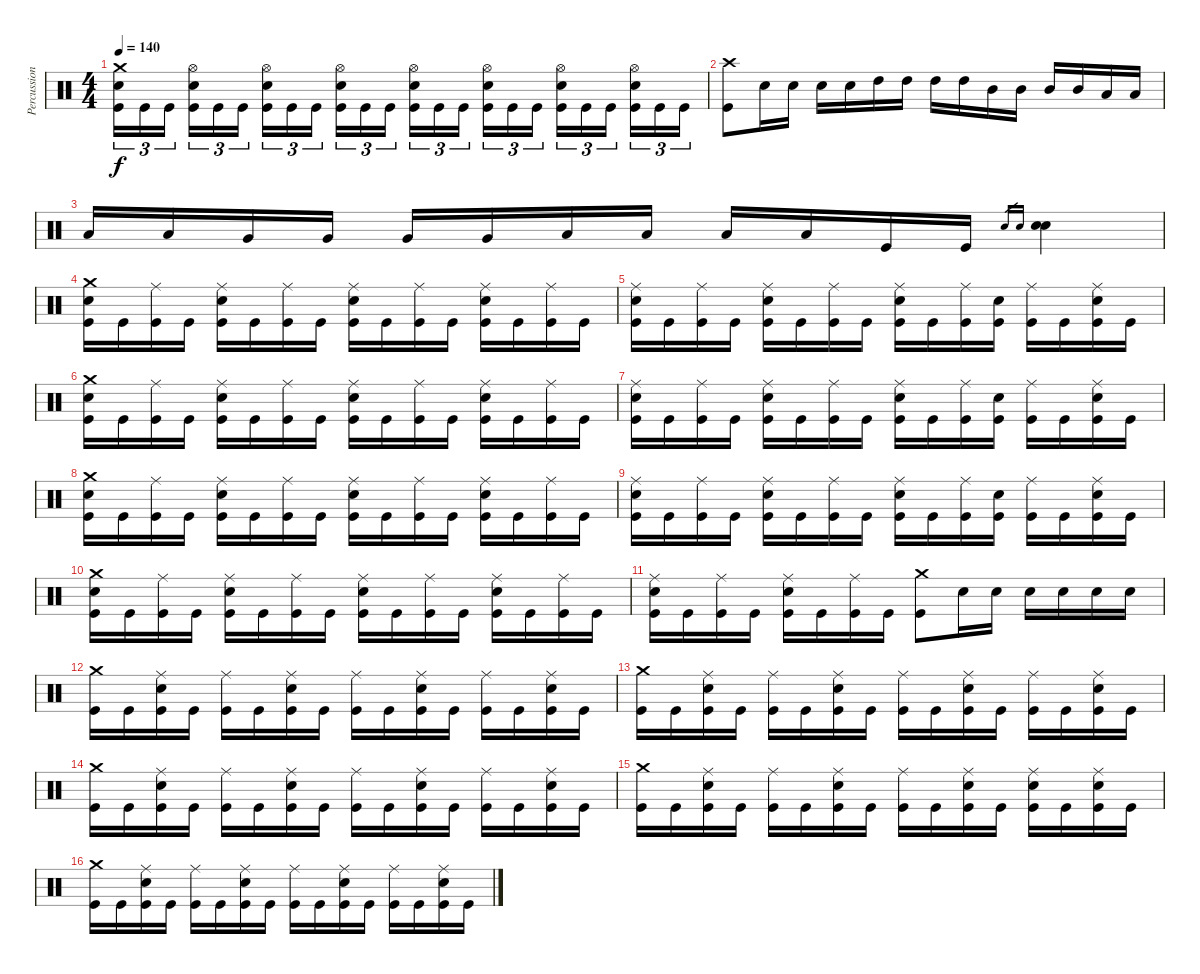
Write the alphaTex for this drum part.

\track ("Percussion" "Percussion") {instrument percussion}
\staff {score}
\articulation defaults
\ts (4 4)
\tempo 140
\clef neutral
\ks c
("Crash medium (hit)" "Snare (hit) 2" "Kick (hit)").16{tu (3 2) dy f} "Kick (hit)".16{tu (3 2)} "Kick (hit)".16{tu (3 2)} ("Hi-Hat (open)" "Snare (hit) 2" "Kick (hit)").16{tu (3 2)} "Kick (hit)".16{tu (3 2)} "Kick (hit)".16{tu (3 2)} ("Hi-Hat (open)" "Snare (hit) 2" "Kick (hit)").16{tu (3 2)} "Kick (hit)".16{tu (3 2)} "Kick (hit)".16{tu (3 2)} ("Hi-Hat (open)" "Snare (hit) 2" "Kick (hit)").16{tu (3 2)} "Kick (hit)".16{tu (3 2)} "Kick (hit)".16{tu (3 2)} ("Hi-Hat (open)" "Snare (hit) 2" "Kick (hit)").16{tu (3 2)} "Kick (hit)".16{tu (3 2)} "Kick (hit)".16{tu (3 2)} ("Hi-Hat (open)" "Snare (hit) 2" "Kick (hit)").16{tu (3 2)} "Kick (hit)".16{tu (3 2)} "Kick (hit)".16{tu (3 2)} ("Hi-Hat (open)" "Snare (hit) 2" "Kick (hit)").16{tu (3 2)} "Kick (hit)".16{tu (3 2)} "Kick (hit)".16{tu (3 2)} ("Hi-Hat (open)" "Snare (hit) 2" "Kick (hit)").16{tu (3 2)} "Kick (hit)".16{tu (3 2)} "Kick (hit)".16{tu (3 2)} |
("Crash high (hit)" "Kick (hit)").8 "Snare (hit) 2".16 "Snare (hit) 2".16 "Snare (hit) 2".16 "Snare (hit) 2".16 "High Tom (hit)".16 "High Tom (hit)".16 "High Tom (hit)".16 "High Tom (hit)".16 "Mid Tom (hit)".16 "Mid Tom (hit)".16 "Mid Tom (hit)".16 "Mid Tom (hit)".16 "Low Tom (hit)".16 "Low Tom (hit)".16 |
"Low Tom (hit)".16 "Low Tom (hit)".16 "Very Low Tom (hit)".16 "Very Low Tom (hit)".16 "Very Low Tom (hit)".16 "Very Low Tom (hit)".16 "Low Floor Tom (hit)".16 "Low Floor Tom (hit)".16 "Low Floor Tom (hit)".16 "Low Floor Tom (hit)".16 "Kick (hit)".16 "Kick (hit)".16 "Snare (hit) 2".16{gr} "Snare (hit) 2".16{gr} ("Snare (hit) 2" "Snare (hit) 2").4 |
("Crash medium (hit)" "Snare (hit) 2" "Kick (hit)").16 "Kick (hit)".16 ("Ride (middle)" "Kick (hit)").16 "Kick (hit)".16 ("Ride (middle)" "Snare (hit) 2" "Kick (hit)").16 "Kick (hit)".16 ("Ride (middle)" "Kick (hit)").16 "Kick (hit)".16 ("Ride (middle)" "Snare (hit) 2" "Kick (hit)").16 "Kick (hit)".16 ("Ride (middle)" "Kick (hit)").16 "Kick (hit)".16 ("Ride (middle)" "Snare (hit) 2" "Kick (hit)").16 "Kick (hit)".16 ("Ride (middle)" "Kick (hit)").16 "Kick (hit)".16 |
("Ride (middle)" "Snare (hit) 2" "Kick (hit)").16 "Kick (hit)".16 ("Ride (middle)" "Kick (hit)").16 "Kick (hit)".16 ("Ride (middle)" "Snare (hit) 2" "Kick (hit)").16 "Kick (hit)".16 ("Ride (middle)" "Kick (hit)").16 "Kick (hit)".16 ("Ride (middle)" "Snare (hit) 2" "Kick (hit)").16 "Kick (hit)".16 ("Ride (middle)" "Kick (hit)").16 ("Snare (hit) 2" "Kick (hit)").16 ("Ride (middle)" "Kick (hit)").16 "Kick (hit)".16 ("Ride (middle)" "Snare (hit) 2" "Kick (hit)").16 "Kick (hit)".16 |
("Crash medium (hit)" "Snare (hit) 2" "Kick (hit)").16 "Kick (hit)".16 ("Ride (middle)" "Kick (hit)").16 "Kick (hit)".16 ("Ride (middle)" "Snare (hit) 2" "Kick (hit)").16 "Kick (hit)".16 ("Ride (middle)" "Kick (hit)").16 "Kick (hit)".16 ("Ride (middle)" "Snare (hit) 2" "Kick (hit)").16 "Kick (hit)".16 ("Ride (middle)" "Kick (hit)").16 "Kick (hit)".16 ("Ride (middle)" "Snare (hit) 2" "Kick (hit)").16 "Kick (hit)".16 ("Ride (middle)" "Kick (hit)").16 "Kick (hit)".16 |
("Ride (middle)" "Snare (hit) 2" "Kick (hit)").16 "Kick (hit)".16 ("Ride (middle)" "Kick (hit)").16 "Kick (hit)".16 ("Ride (middle)" "Snare (hit) 2" "Kick (hit)").16 "Kick (hit)".16 ("Ride (middle)" "Kick (hit)").16 "Kick (hit)".16 ("Ride (middle)" "Snare (hit) 2" "Kick (hit)").16 "Kick (hit)".16 ("Ride (middle)" "Kick (hit)").16 ("Snare (hit) 2" "Kick (hit)").16 ("Ride (middle)" "Kick (hit)").16 "Kick (hit)".16 ("Ride (middle)" "Snare (hit) 2" "Kick (hit)").16 "Kick (hit)".16 |
("Crash medium (hit)" "Snare (hit) 2" "Kick (hit)").16 "Kick (hit)".16 ("Ride (middle)" "Kick (hit)").16 "Kick (hit)".16 ("Ride (middle)" "Snare (hit) 2" "Kick (hit)").16 "Kick (hit)".16 ("Ride (middle)" "Kick (hit)").16 "Kick (hit)".16 ("Ride (middle)" "Snare (hit) 2" "Kick (hit)").16 "Kick (hit)".16 ("Ride (middle)" "Kick (hit)").16 "Kick (hit)".16 ("Ride (middle)" "Snare (hit) 2" "Kick (hit)").16 "Kick (hit)".16 ("Ride (middle)" "Kick (hit)").16 "Kick (hit)".16 |
("Ride (middle)" "Snare (hit) 2" "Kick (hit)").16 "Kick (hit)".16 ("Ride (middle)" "Kick (hit)").16 "Kick (hit)".16 ("Ride (middle)" "Snare (hit) 2" "Kick (hit)").16 "Kick (hit)".16 ("Ride (middle)" "Kick (hit)").16 "Kick (hit)".16 ("Ride (middle)" "Snare (hit) 2" "Kick (hit)").16 "Kick (hit)".16 ("Ride (middle)" "Kick (hit)").16 ("Snare (hit) 2" "Kick (hit)").16 ("Ride (middle)" "Kick (hit)").16 "Kick (hit)".16 ("Ride (middle)" "Snare (hit) 2" "Kick (hit)").16 "Kick (hit)".16 |
("Crash medium (hit)" "Snare (hit) 2" "Kick (hit)").16 "Kick (hit)".16 ("Ride (middle)" "Kick (hit)").16 "Kick (hit)".16 ("Ride (middle)" "Snare (hit) 2" "Kick (hit)").16 "Kick (hit)".16 ("Ride (middle)" "Kick (hit)").16 "Kick (hit)".16 ("Ride (middle)" "Snare (hit) 2" "Kick (hit)").16 "Kick (hit)".16 ("Ride (middle)" "Kick (hit)").16 "Kick (hit)".16 ("Ride (middle)" "Snare (hit) 2" "Kick (hit)").16 "Kick (hit)".16 ("Ride (middle)" "Kick (hit)").16 "Kick (hit)".16 |
("Ride (middle)" "Snare (hit) 2" "Kick (hit)").16 "Kick (hit)".16 ("Ride (middle)" "Kick (hit)").16 "Kick (hit)".16 ("Ride (middle)" "Snare (hit) 2" "Kick (hit)").16 "Kick (hit)".16 ("Ride (middle)" "Kick (hit)").16 "Kick (hit)".16 ("Crash medium (hit)" "Kick (hit)").8 "Snare (hit) 2".16 "Snare (hit) 2".16 "Snare (hit) 2".16 "Snare (hit) 2".16 "Snare (hit) 2".16 "Snare (hit) 2".16 |
("Crash medium (hit)" "Kick (hit)").16 "Kick (hit)".16 ("Ride (middle)" "Snare (hit) 2" "Kick (hit)").16 "Kick (hit)".16 ("Ride (middle)" "Kick (hit)").16 "Kick (hit)".16 ("Ride (middle)" "Snare (hit) 2" "Kick (hit)").16 "Kick (hit)".16 ("Ride (middle)" "Kick (hit)").16 "Kick (hit)".16 ("Ride (middle)" "Snare (hit) 2" "Kick (hit)").16 "Kick (hit)".16 ("Ride (middle)" "Kick (hit)").16 "Kick (hit)".16 ("Ride (middle)" "Snare (hit) 2" "Kick (hit)").16 "Kick (hit)".16 |
("Crash medium (hit)" "Kick (hit)").16 "Kick (hit)".16 ("Ride (middle)" "Snare (hit) 2" "Kick (hit)").16 "Kick (hit)".16 ("Ride (middle)" "Kick (hit)").16 "Kick (hit)".16 ("Ride (middle)" "Snare (hit) 2" "Kick (hit)").16 "Kick (hit)".16 ("Ride (middle)" "Kick (hit)").16 "Kick (hit)".16 ("Ride (middle)" "Snare (hit) 2" "Kick (hit)").16 "Kick (hit)".16 ("Ride (middle)" "Kick (hit)").16 "Kick (hit)".16 ("Ride (middle)" "Snare (hit) 2" "Kick (hit)").16 "Kick (hit)".16 |
("Crash medium (hit)" "Kick (hit)").16 "Kick (hit)".16 ("Ride (middle)" "Snare (hit) 2" "Kick (hit)").16 "Kick (hit)".16 ("Ride (middle)" "Kick (hit)").16 "Kick (hit)".16 ("Ride (middle)" "Snare (hit) 2" "Kick (hit)").16 "Kick (hit)".16 ("Ride (middle)" "Kick (hit)").16 "Kick (hit)".16 ("Ride (middle)" "Snare (hit) 2" "Kick (hit)").16 "Kick (hit)".16 ("Ride (middle)" "Kick (hit)").16 "Kick (hit)".16 ("Ride (middle)" "Snare (hit) 2" "Kick (hit)").16 "Kick (hit)".16 |
("Crash medium (hit)" "Kick (hit)").16 "Kick (hit)".16 ("Ride (middle)" "Snare (hit) 2" "Kick (hit)").16 "Kick (hit)".16 ("Ride (middle)" "Kick (hit)").16 "Kick (hit)".16 ("Ride (middle)" "Snare (hit) 2" "Kick (hit)").16 "Kick (hit)".16 ("Ride (middle)" "Kick (hit)").16 "Kick (hit)".16 ("Ride (middle)" "Snare (hit) 2" "Kick (hit)").16 "Kick (hit)".16 ("Ride (middle)" "Snare (hit) 2" "Kick (hit)").16 "Kick (hit)".16 ("Ride (middle)" "Snare (hit) 2" "Kick (hit)").16 "Kick (hit)".16 |
("Crash medium (hit)" "Kick (hit)").16 "Kick (hit)".16 ("Ride (middle)" "Snare (hit) 2" "Kick (hit)").16 "Kick (hit)".16 ("Ride (middle)" "Kick (hit)").16 "Kick (hit)".16 ("Ride (middle)" "Snare (hit) 2" "Kick (hit)").16 "Kick (hit)".16 ("Ride (middle)" "Kick (hit)").16 "Kick (hit)".16 ("Ride (middle)" "Snare (hit) 2" "Kick (hit)").16 "Kick (hit)".16 ("Ride (middle)" "Kick (hit)").16 "Kick (hit)".16 ("Ride (middle)" "Snare (hit) 2" "Kick (hit)").16 "Kick (hit)".16
